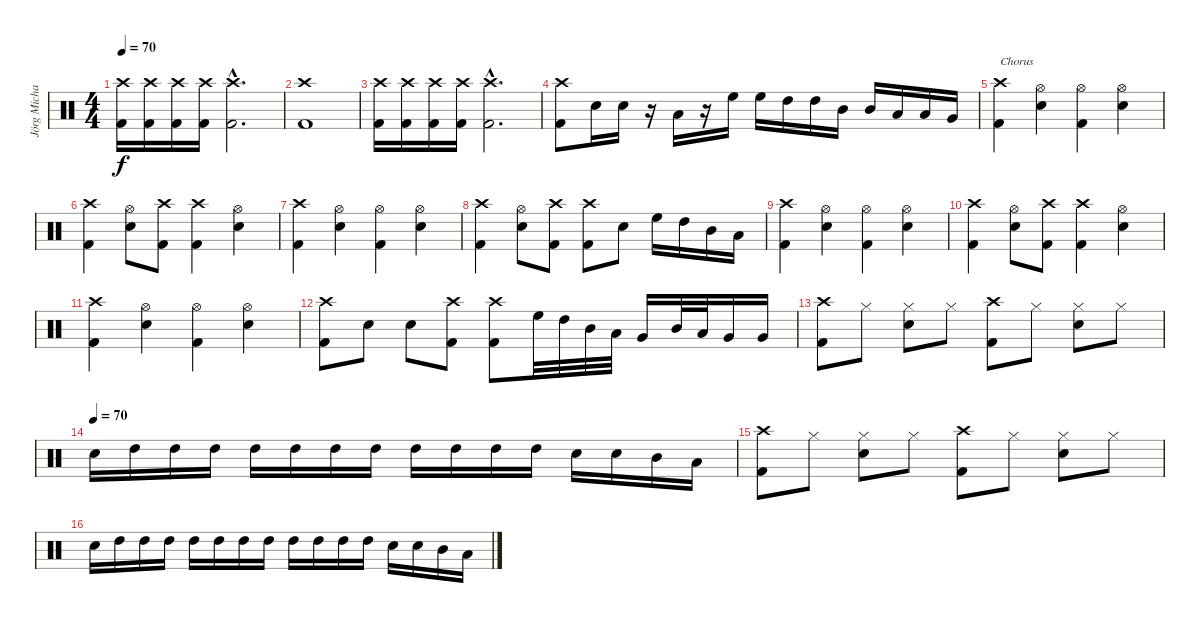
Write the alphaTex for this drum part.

\track ("Jörg Michael (Drums)" "Jörg Micha") {instrument percussion}
\staff {score}
\articulation defaults
\ts (4 4)
\tempo 70
\clef neutral
\ks c
("Crash high (hit)" "Kick (hit) 2").16{dy f} ("Crash high (hit)" "Kick (hit) 2").16 ("Crash high (hit)" "Kick (hit) 2").16 ("Crash high (hit)" "Kick (hit) 2").16 ("Crash high (hit)"{hac} "Kick (hit) 2"{hac}).2{d} |
("Crash high (hit)" "Kick (hit) 2").1 |
("Crash high (hit)" "Kick (hit) 2").16 ("Crash high (hit)" "Kick (hit) 2").16 ("Crash high (hit)" "Kick (hit) 2").16 ("Crash high (hit)" "Kick (hit) 2").16 ("Crash high (hit)"{hac} "Kick (hit) 2"{hac}).2{d} |
("Crash high (hit)" "Kick (hit) 2").8 "Snare (hit) 2".16 "Snare (hit) 2".16 r.16 "Low Tom (hit)".16 r.16 "High Floor Tom (hit)".16 "High Floor Tom (hit)".16 "High Tom (hit)".16 "High Tom (hit)".16 "Mid Tom (hit)".16 "Mid Tom (hit)".16 "Low Tom (hit)".16 "Low Tom (hit)".16 "Very Low Tom (hit)".16 |
("Crash high (hit)" "Kick (hit) 2").4{txt "Chorus"} ("Hi-Hat (open)" "Snare (hit) 2").4 ("Hi-Hat (open)" "Kick (hit) 2").4 ("Hi-Hat (open)" "Snare (hit) 2").4 |
("Crash high (hit)" "Kick (hit) 2").4 ("Hi-Hat (open)" "Snare (hit) 2").8 ("Crash high (hit)" "Kick (hit) 2").8 ("Crash high (hit)" "Kick (hit) 2").4 ("Hi-Hat (open)" "Snare (hit) 2").4 |
("Crash high (hit)" "Kick (hit) 2").4 ("Hi-Hat (open)" "Snare (hit) 2").4 ("Hi-Hat (open)" "Kick (hit) 2").4 ("Hi-Hat (open)" "Snare (hit) 2").4 |
("Crash high (hit)" "Kick (hit) 2").4 ("Hi-Hat (open)" "Snare (hit) 2").8 ("Crash high (hit)" "Kick (hit) 2").8 ("Crash high (hit)" "Kick (hit) 2").8 "Snare (hit) 2".8 "High Floor Tom (hit)".16 "High Tom (hit)".16 "Mid Tom (hit)".16 "Low Tom (hit)".16 |
("Crash high (hit)" "Kick (hit) 2").4 ("Hi-Hat (open)" "Snare (hit) 2").4 ("Hi-Hat (open)" "Kick (hit) 2").4 ("Hi-Hat (open)" "Snare (hit) 2").4 |
("Crash high (hit)" "Kick (hit) 2").4 ("Hi-Hat (open)" "Snare (hit) 2").8 ("Crash high (hit)" "Kick (hit) 2").8 ("Crash high (hit)" "Kick (hit) 2").4 ("Hi-Hat (open)" "Snare (hit) 2").4 |
("Crash high (hit)" "Kick (hit) 2").4 ("Hi-Hat (open)" "Snare (hit) 2").4 ("Hi-Hat (open)" "Kick (hit) 2").4 ("Hi-Hat (open)" "Snare (hit) 2").4 |
("Crash high (hit)" "Kick (hit) 2").8 "Snare (hit) 2".8 "Snare (hit) 2".8 ("Crash high (hit)" "Kick (hit) 2").8 ("Crash high (hit)" "Kick (hit) 2").8 "High Floor Tom (hit)".32 "High Tom (hit)".32 "Mid Tom (hit)".32 "Low Tom (hit)".32 "Very Low Tom (hit)".16 "Mid Tom (hit)".32 "Low Tom (hit)".32 "Very Low Tom (hit)".16 "Very Low Tom (hit)".16 |
("Crash high (hit)" "Kick (hit) 2").8 "Hi-Hat (closed)".8 ("Hi-Hat (closed)" "Snare (hit) 2").8 "Hi-Hat (closed)".8 ("Crash high (hit)" "Kick (hit) 2").8 "Hi-Hat (closed)".8 ("Hi-Hat (closed)" "Snare (hit) 2").8 "Hi-Hat (closed)".8 |
\tempo (70)
"Snare (hit) 2".16 "High Tom (hit)".16 "High Tom (hit)".16 "High Tom (hit)".16 "High Tom (hit)".16 "High Tom (hit)".16 "High Tom (hit)".16 "High Tom (hit)".16 "High Tom (hit)".16 "High Tom (hit)".16 "High Tom (hit)".16 "High Tom (hit)".16 "Snare (hit) 2".16 "Snare (hit) 2".16 "Mid Tom (hit)".16 "Low Tom (hit)".16 |
("Crash high (hit)" "Kick (hit) 2").8 "Hi-Hat (closed)".8 ("Hi-Hat (closed)" "Snare (hit) 2").8 "Hi-Hat (closed)".8 ("Crash high (hit)" "Kick (hit) 2").8 "Hi-Hat (closed)".8 ("Hi-Hat (closed)" "Snare (hit) 2").8 "Hi-Hat (closed)".8 |
"Snare (hit) 2".16 "High Tom (hit)".16 "High Tom (hit)".16 "High Tom (hit)".16 "High Tom (hit)".16 "High Tom (hit)".16 "High Tom (hit)".16 "High Tom (hit)".16 "High Tom (hit)".16 "High Tom (hit)".16 "High Tom (hit)".16 "High Tom (hit)".16 "Snare (hit) 2".16 "Snare (hit) 2".16 "Mid Tom (hit)".16 "Low Tom (hit)".16
